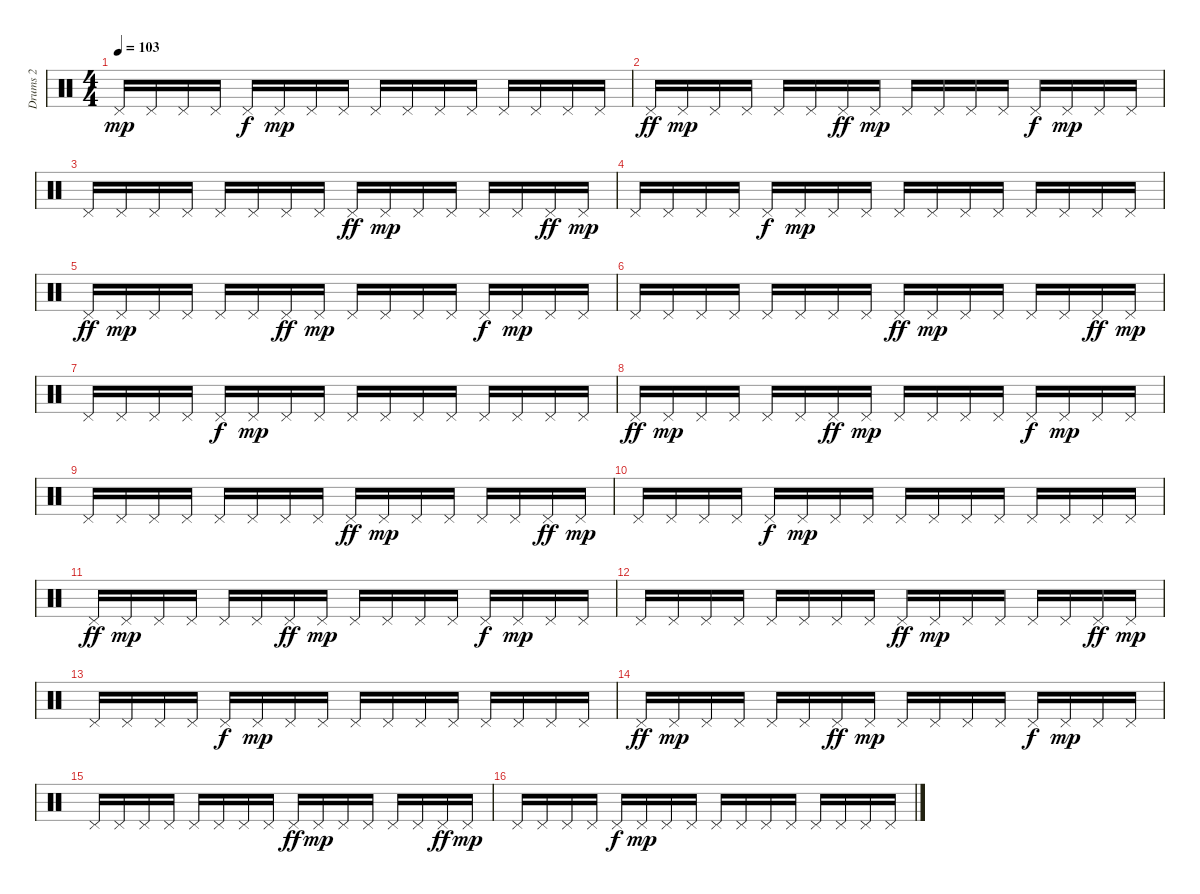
\track ("Drums 2" "Drums 2") {instrument percussion}
\staff {score}
\articulation defaults
\ts (4 4)
\tempo 103
\clef neutral
\ks c "Pedal Hi-Hat (hit)".16{dy mp} "Pedal Hi-Hat (hit)".16 "Pedal Hi-Hat (hit)".16 "Pedal Hi-Hat (hit)".16 "Pedal Hi-Hat (hit)".16{dy f} "Pedal Hi-Hat (hit)".16{dy mp} "Pedal Hi-Hat (hit)".16 "Pedal Hi-Hat (hit)".16 "Pedal Hi-Hat (hit)".16 "Pedal Hi-Hat (hit)".16 "Pedal Hi-Hat (hit)".16 "Pedal Hi-Hat (hit)".16 "Pedal Hi-Hat (hit)".16 "Pedal Hi-Hat (hit)".16 "Pedal Hi-Hat (hit)".16 "Pedal Hi-Hat (hit)".16
|
"Pedal Hi-Hat (hit)".16{dy ff} "Pedal Hi-Hat (hit)".16{dy mp} "Pedal Hi-Hat (hit)".16 "Pedal Hi-Hat (hit)".16 "Pedal Hi-Hat (hit)".16 "Pedal Hi-Hat (hit)".16 "Pedal Hi-Hat (hit)".16{dy ff} "Pedal Hi-Hat (hit)".16{dy mp} "Pedal Hi-Hat (hit)".16 "Pedal Hi-Hat (hit)".16 "Pedal Hi-Hat (hit)".16 "Pedal Hi-Hat (hit)".16 "Pedal Hi-Hat (hit)".16{dy f} "Pedal Hi-Hat (hit)".16{dy mp} "Pedal Hi-Hat (hit)".16 "Pedal Hi-Hat (hit)".16 |
"Pedal Hi-Hat (hit)".16 "Pedal Hi-Hat (hit)".16 "Pedal Hi-Hat (hit)".16 "Pedal Hi-Hat (hit)".16 "Pedal Hi-Hat (hit)".16 "Pedal Hi-Hat (hit)".16 "Pedal Hi-Hat (hit)".16 "Pedal Hi-Hat (hit)".16 "Pedal Hi-Hat (hit)".16{dy ff} "Pedal Hi-Hat (hit)".16{dy mp} "Pedal Hi-Hat (hit)".16 "Pedal Hi-Hat (hit)".16 "Pedal Hi-Hat (hit)".16 "Pedal Hi-Hat (hit)".16 "Pedal Hi-Hat (hit)".16{dy ff} "Pedal Hi-Hat (hit)".16{dy mp} |
"Pedal Hi-Hat (hit)".16 "Pedal Hi-Hat (hit)".16 "Pedal Hi-Hat (hit)".16 "Pedal Hi-Hat (hit)".16 "Pedal Hi-Hat (hit)".16{dy f} "Pedal Hi-Hat (hit)".16{dy mp} "Pedal Hi-Hat (hit)".16 "Pedal Hi-Hat (hit)".16 "Pedal Hi-Hat (hit)".16 "Pedal Hi-Hat (hit)".16 "Pedal Hi-Hat (hit)".16 "Pedal Hi-Hat (hit)".16 "Pedal Hi-Hat (hit)".16 "Pedal Hi-Hat (hit)".16 "Pedal Hi-Hat (hit)".16 "Pedal Hi-Hat (hit)".16 |
"Pedal Hi-Hat (hit)".16{dy ff} "Pedal Hi-Hat (hit)".16{dy mp} "Pedal Hi-Hat (hit)".16 "Pedal Hi-Hat (hit)".16 "Pedal Hi-Hat (hit)".16 "Pedal Hi-Hat (hit)".16 "Pedal Hi-Hat (hit)".16{dy ff} "Pedal Hi-Hat (hit)".16{dy mp} "Pedal Hi-Hat (hit)".16 "Pedal Hi-Hat (hit)".16 "Pedal Hi-Hat (hit)".16 "Pedal Hi-Hat (hit)".16 "Pedal Hi-Hat (hit)".16{dy f} "Pedal Hi-Hat (hit)".16{dy mp} "Pedal Hi-Hat (hit)".16 "Pedal Hi-Hat (hit)".16 |
"Pedal Hi-Hat (hit)".16 "Pedal Hi-Hat (hit)".16 "Pedal Hi-Hat (hit)".16 "Pedal Hi-Hat (hit)".16 "Pedal Hi-Hat (hit)".16 "Pedal Hi-Hat (hit)".16 "Pedal Hi-Hat (hit)".16 "Pedal Hi-Hat (hit)".16 "Pedal Hi-Hat (hit)".16{dy ff} "Pedal Hi-Hat (hit)".16{dy mp} "Pedal Hi-Hat (hit)".16 "Pedal Hi-Hat (hit)".16 "Pedal Hi-Hat (hit)".16 "Pedal Hi-Hat (hit)".16 "Pedal Hi-Hat (hit)".16{dy ff} "Pedal Hi-Hat (hit)".16{dy mp} |
"Pedal Hi-Hat (hit)".16 "Pedal Hi-Hat (hit)".16 "Pedal Hi-Hat (hit)".16 "Pedal Hi-Hat (hit)".16 "Pedal Hi-Hat (hit)".16{dy f} "Pedal Hi-Hat (hit)".16{dy mp} "Pedal Hi-Hat (hit)".16 "Pedal Hi-Hat (hit)".16 "Pedal Hi-Hat (hit)".16 "Pedal Hi-Hat (hit)".16 "Pedal Hi-Hat (hit)".16 "Pedal Hi-Hat (hit)".16 "Pedal Hi-Hat (hit)".16 "Pedal Hi-Hat (hit)".16 "Pedal Hi-Hat (hit)".16 "Pedal Hi-Hat (hit)".16 |
"Pedal Hi-Hat (hit)".16{dy ff} "Pedal Hi-Hat (hit)".16{dy mp} "Pedal Hi-Hat (hit)".16 "Pedal Hi-Hat (hit)".16 "Pedal Hi-Hat (hit)".16 "Pedal Hi-Hat (hit)".16 "Pedal Hi-Hat (hit)".16{dy ff} "Pedal Hi-Hat (hit)".16{dy mp} "Pedal Hi-Hat (hit)".16 "Pedal Hi-Hat (hit)".16 "Pedal Hi-Hat (hit)".16 "Pedal Hi-Hat (hit)".16 "Pedal Hi-Hat (hit)".16{dy f} "Pedal Hi-Hat (hit)".16{dy mp} "Pedal Hi-Hat (hit)".16 "Pedal Hi-Hat (hit)".16 |
"Pedal Hi-Hat (hit)".16 "Pedal Hi-Hat (hit)".16 "Pedal Hi-Hat (hit)".16 "Pedal Hi-Hat (hit)".16 "Pedal Hi-Hat (hit)".16 "Pedal Hi-Hat (hit)".16 "Pedal Hi-Hat (hit)".16 "Pedal Hi-Hat (hit)".16 "Pedal Hi-Hat (hit)".16{dy ff} "Pedal Hi-Hat (hit)".16{dy mp} "Pedal Hi-Hat (hit)".16 "Pedal Hi-Hat (hit)".16 "Pedal Hi-Hat (hit)".16 "Pedal Hi-Hat (hit)".16 "Pedal Hi-Hat (hit)".16{dy ff} "Pedal Hi-Hat (hit)".16{dy mp} |
"Pedal Hi-Hat (hit)".16 "Pedal Hi-Hat (hit)".16 "Pedal Hi-Hat (hit)".16 "Pedal Hi-Hat (hit)".16 "Pedal Hi-Hat (hit)".16{dy f} "Pedal Hi-Hat (hit)".16{dy mp} "Pedal Hi-Hat (hit)".16 "Pedal Hi-Hat (hit)".16 "Pedal Hi-Hat (hit)".16 "Pedal Hi-Hat (hit)".16 "Pedal Hi-Hat (hit)".16 "Pedal Hi-Hat (hit)".16 "Pedal Hi-Hat (hit)".16 "Pedal Hi-Hat (hit)".16 "Pedal Hi-Hat (hit)".16 "Pedal Hi-Hat (hit)".16 |
"Pedal Hi-Hat (hit)".16{dy ff} "Pedal Hi-Hat (hit)".16{dy mp} "Pedal Hi-Hat (hit)".16 "Pedal Hi-Hat (hit)".16 "Pedal Hi-Hat (hit)".16 "Pedal Hi-Hat (hit)".16 "Pedal Hi-Hat (hit)".16{dy ff} "Pedal Hi-Hat (hit)".16{dy mp} "Pedal Hi-Hat (hit)".16 "Pedal Hi-Hat (hit)".16 "Pedal Hi-Hat (hit)".16 "Pedal Hi-Hat (hit)".16 "Pedal Hi-Hat (hit)".16{dy f} "Pedal Hi-Hat (hit)".16{dy mp} "Pedal Hi-Hat (hit)".16 "Pedal Hi-Hat (hit)".16 |
"Pedal Hi-Hat (hit)".16 "Pedal Hi-Hat (hit)".16 "Pedal Hi-Hat (hit)".16 "Pedal Hi-Hat (hit)".16 "Pedal Hi-Hat (hit)".16 "Pedal Hi-Hat (hit)".16 "Pedal Hi-Hat (hit)".16 "Pedal Hi-Hat (hit)".16 "Pedal Hi-Hat (hit)".16{dy ff} "Pedal Hi-Hat (hit)".16{dy mp} "Pedal Hi-Hat (hit)".16 "Pedal Hi-Hat (hit)".16 "Pedal Hi-Hat (hit)".16 "Pedal Hi-Hat (hit)".16 "Pedal Hi-Hat (hit)".16{dy ff} "Pedal Hi-Hat (hit)".16{dy mp} |
"Pedal Hi-Hat (hit)".16 "Pedal Hi-Hat (hit)".16 "Pedal Hi-Hat (hit)".16 "Pedal Hi-Hat (hit)".16 "Pedal Hi-Hat (hit)".16{dy f} "Pedal Hi-Hat (hit)".16{dy mp} "Pedal Hi-Hat (hit)".16 "Pedal Hi-Hat (hit)".16 "Pedal Hi-Hat (hit)".16 "Pedal Hi-Hat (hit)".16 "Pedal Hi-Hat (hit)".16 "Pedal Hi-Hat (hit)".16 "Pedal Hi-Hat (hit)".16 "Pedal Hi-Hat (hit)".16 "Pedal Hi-Hat (hit)".16 "Pedal Hi-Hat (hit)".16 |
"Pedal Hi-Hat (hit)".16{dy ff} "Pedal Hi-Hat (hit)".16{dy mp} "Pedal Hi-Hat (hit)".16 "Pedal Hi-Hat (hit)".16 "Pedal Hi-Hat (hit)".16 "Pedal Hi-Hat (hit)".16 "Pedal Hi-Hat (hit)".16{dy ff} "Pedal Hi-Hat (hit)".16{dy mp} "Pedal Hi-Hat (hit)".16 "Pedal Hi-Hat (hit)".16 "Pedal Hi-Hat (hit)".16 "Pedal Hi-Hat (hit)".16 "Pedal Hi-Hat (hit)".16{dy f} "Pedal Hi-Hat (hit)".16{dy mp} "Pedal Hi-Hat (hit)".16 "Pedal Hi-Hat (hit)".16 |
"Pedal Hi-Hat (hit)".16 "Pedal Hi-Hat (hit)".16 "Pedal Hi-Hat (hit)".16 "Pedal Hi-Hat (hit)".16 "Pedal Hi-Hat (hit)".16 "Pedal Hi-Hat (hit)".16 "Pedal Hi-Hat (hit)".16 "Pedal Hi-Hat (hit)".16 "Pedal Hi-Hat (hit)".16{dy ff} "Pedal Hi-Hat (hit)".16{dy mp} "Pedal Hi-Hat (hit)".16 "Pedal Hi-Hat (hit)".16 "Pedal Hi-Hat (hit)".16 "Pedal Hi-Hat (hit)".16 "Pedal Hi-Hat (hit)".16{dy ff} "Pedal Hi-Hat (hit)".16{dy mp} |
"Pedal Hi-Hat (hit)".16 "Pedal Hi-Hat (hit)".16 "Pedal Hi-Hat (hit)".16 "Pedal Hi-Hat (hit)".16 "Pedal Hi-Hat (hit)".16{dy f} "Pedal Hi-Hat (hit)".16{dy mp} "Pedal Hi-Hat (hit)".16 "Pedal Hi-Hat (hit)".16 "Pedal Hi-Hat (hit)".16 "Pedal Hi-Hat (hit)".16 "Pedal Hi-Hat (hit)".16 "Pedal Hi-Hat (hit)".16 "Pedal Hi-Hat (hit)".16 "Pedal Hi-Hat (hit)".16 "Pedal Hi-Hat (hit)".16 "Pedal Hi-Hat (hit)".16
